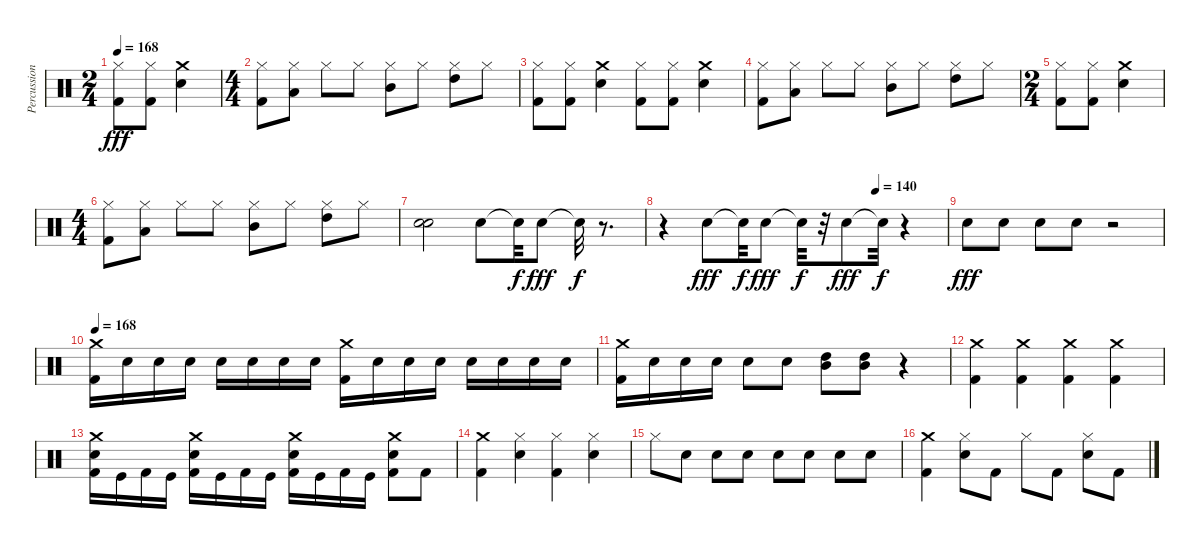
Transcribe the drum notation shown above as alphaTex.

\track ("Percussion" "Percussion") {instrument percussion}
\staff {score}
\articulation defaults
\ts (2 4)
\tempo 168
\clef neutral
\ks c
("Kick (hit) 2" "Hi-Hat (closed)").8{dy fff} ("Kick (hit) 2" "Hi-Hat (closed)").8 ("Snare (hit) 2" "Crash medium (hit)").4 |
\ts (4 4)
("Hi-Hat (closed)" "Kick (hit) 2").8 ("Low Tom (hit)" "Hi-Hat (closed)").8 "Hi-Hat (closed)".8 "Hi-Hat (closed)".8 ("Mid Tom (hit)" "Hi-Hat (closed)").8 "Hi-Hat (closed)".8 ("Hi-Hat (closed)" "High Tom (hit)").8 "Hi-Hat (closed)".8 |
("Hi-Hat (closed)" "Kick (hit) 2").8 ("Hi-Hat (closed)" "Kick (hit) 2").8 ("Snare (hit) 2" "Crash medium (hit)").4 ("Kick (hit) 2" "Hi-Hat (closed)").8 ("Kick (hit) 2" "Hi-Hat (closed)").8 ("Crash medium (hit)" "Snare (hit) 2").4 |
("Hi-Hat (closed)" "Kick (hit) 2").8 ("Low Tom (hit)" "Hi-Hat (closed)").8 "Hi-Hat (closed)".8 "Hi-Hat (closed)".8 ("Mid Tom (hit)" "Hi-Hat (closed)").8 "Hi-Hat (closed)".8 ("Hi-Hat (closed)" "High Tom (hit)").8 "Hi-Hat (closed)".8 |
\ts (2 4)
("Hi-Hat (closed)" "Kick (hit) 2").8 ("Hi-Hat (closed)" "Kick (hit) 2").8 ("Crash medium (hit)" "Snare (hit) 2").4 |
\ts (4 4)
("Hi-Hat (closed)" "Kick (hit) 2").8 ("Low Tom (hit)" "Hi-Hat (closed)").8 "Hi-Hat (closed)".8 "Hi-Hat (closed)".8 ("Mid Tom (hit)" "Hi-Hat (closed)").8 "Hi-Hat (closed)".8 ("Hi-Hat (closed)" "High Tom (hit)").8 "Hi-Hat (closed)".8 |
("Snare (hit) 2" "Snare (hit) 2").2 "Snare (hit) 2".8 "Snare (hit)"{t}.32{dy f} "Snare (hit) 2".8{dy fff} "Snare (hit)"{t}.32{dy f} r.8{d} |
\tempo (140 0.75)
r.4 "Snare (hit) 2".8{dy fff} "Snare (hit)"{t}.32{dy f} "Snare (hit) 2".8{dy fff} "Snare (hit)"{t}.32{dy f} r.32 "Snare (hit) 2".8{dy fff} "Snare (hit)"{t}.32{dy f} r.4 |
"Snare (hit) 2".8{dy fff} "Snare (hit) 2".8 "Snare (hit) 2".8 "Snare (hit) 2".8 r.2 |
\tempo 168
("Kick (hit) 2" "Crash medium (hit)").16 "Snare (hit) 2".16 "Snare (hit) 2".16 "Snare (hit) 2".16 "Snare (hit) 2".16 "Snare (hit) 2".16 "Snare (hit) 2".16 "Snare (hit) 2".16 ("Kick (hit) 2" "Crash medium (hit)").16 "Snare (hit) 2".16 "Snare (hit) 2".16 "Snare (hit) 2".16 "Snare (hit) 2".16 "Snare (hit) 2".16 "Snare (hit) 2".16 "Snare (hit) 2".16 |
("Kick (hit) 2" "Crash medium (hit)").16 "Snare (hit) 2".16 "Snare (hit) 2".16 "Snare (hit) 2".16 "Snare (hit) 2".8 "Snare (hit) 2".8 ("High Tom (hit)" "Mid Tom (hit)").8 ("High Tom (hit)" "Mid Tom (hit)").8 r.4 |
("Crash medium (hit)" "Kick (hit) 2").4 ("Crash medium (hit)" "Kick (hit) 2").4 ("Crash medium (hit)" "Kick (hit) 2").4 ("Crash medium (hit)" "Kick (hit) 2").4 |
("Snare (hit) 2" "Crash medium (hit)" "Kick (hit) 2").16 "Kick (hit)".16 "Kick (hit) 2".16 "Kick (hit)".16 ("Snare (hit) 2" "Crash medium (hit)" "Kick (hit) 2").16 "Kick (hit)".16 "Kick (hit) 2".16 "Kick (hit)".16 ("Snare (hit) 2" "Crash medium (hit)" "Kick (hit) 2").16 "Kick (hit)".16 "Kick (hit) 2".16 "Kick (hit)".16 ("Snare (hit) 2" "Crash medium (hit)" "Kick (hit) 2").8 "Kick (hit) 2".8 |
("Crash medium (hit)" "Kick (hit) 2").4 ("Snare (hit) 2" "Hi-Hat (closed)").4 ("Kick (hit) 2" "Hi-Hat (closed)").4 ("Snare (hit) 2" "Hi-Hat (closed)").4 |
"Hi-Hat (closed)".8 "Snare (hit) 2".8 "Snare (hit) 2".8 "Snare (hit) 2".8 "Snare (hit) 2".8 "Snare (hit) 2".8 "Snare (hit) 2".8 "Snare (hit) 2".8 |
("Kick (hit) 2" "Crash medium (hit)").4 ("Hi-Hat (closed)" "Snare (hit) 2").8 "Kick (hit) 2".8 "Hi-Hat (closed)".8 "Kick (hit) 2".8 ("Snare (hit) 2" "Hi-Hat (closed)").8 "Kick (hit) 2".8
